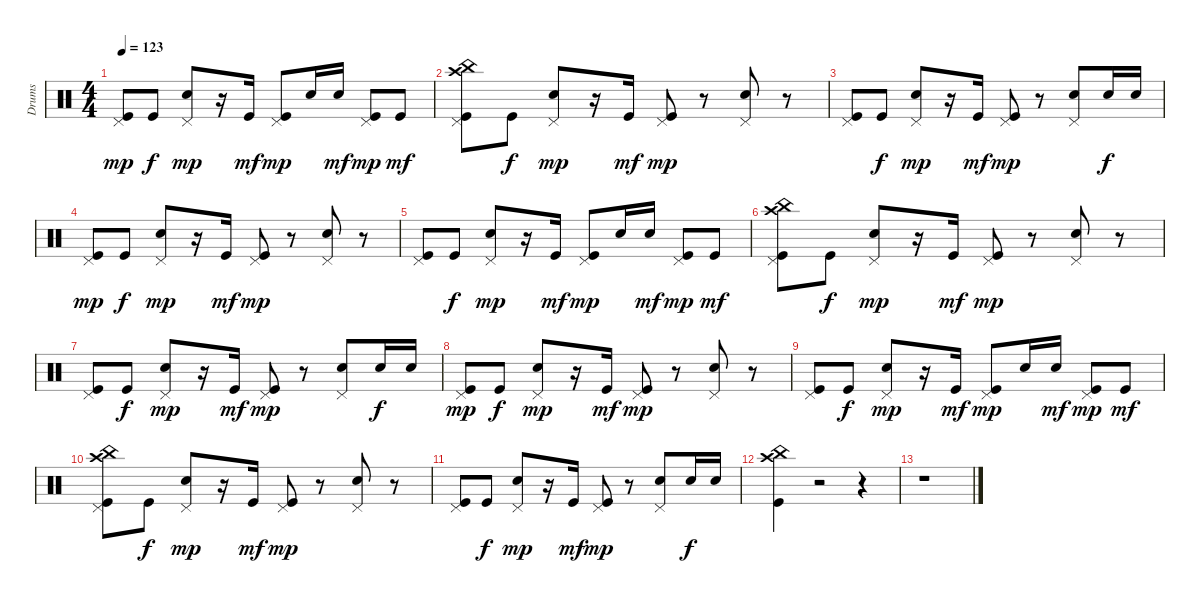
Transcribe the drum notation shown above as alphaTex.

\track ("Drums" "Drums") {instrument percussion}
\staff {score}
\articulation defaults
\ts (4 4)
\tempo 123
\clef neutral
\ks c
("Pedal Hi-Hat (hit)" "Kick (hit)").8{dy mp} "Kick (hit)".8{dy f} ("Pedal Hi-Hat (hit)" "Electric Snare (hit)").8{dy mp} r.16 "Kick (hit)".16{dy mf} ("Pedal Hi-Hat (hit)" "Kick (hit)").8{dy mp} "Electric Snare (hit)".16 "Electric Snare (hit)".16{dy mf} ("Kick (hit)" "Pedal Hi-Hat (hit)").8{dy mp} "Kick (hit)".8{dy mf} |
("Pedal Hi-Hat (hit)" "Kick (hit)" "Crash high (hit)" "China (hit)").8 "Kick (hit)".8{dy f} ("Pedal Hi-Hat (hit)" "Electric Snare (hit)").8{dy mp} r.16 "Kick (hit)".16{dy mf} ("Pedal Hi-Hat (hit)" "Kick (hit)").8{dy mp} r.8 ("Pedal Hi-Hat (hit)" "Electric Snare (hit)").8 r.8 |
("Pedal Hi-Hat (hit)" "Kick (hit)").8 "Kick (hit)".8{dy f} ("Electric Snare (hit)" "Pedal Hi-Hat (hit)").8{dy mp} r.16 "Kick (hit)".16{dy mf} ("Pedal Hi-Hat (hit)" "Kick (hit)").8{dy mp} r.8 ("Pedal Hi-Hat (hit)" "Electric Snare (hit)").8 "Electric Snare (hit)".16{dy f} "Electric Snare (hit)".16 |
("Pedal Hi-Hat (hit)" "Kick (hit)").8{dy mp} "Kick (hit)".8{dy f} ("Pedal Hi-Hat (hit)" "Electric Snare (hit)").8{dy mp} r.16 "Kick (hit)".16{dy mf} ("Pedal Hi-Hat (hit)" "Kick (hit)").8{dy mp} r.8 ("Pedal Hi-Hat (hit)" "Electric Snare (hit)").8 r.8 |
("Pedal Hi-Hat (hit)" "Kick (hit)").8 "Kick (hit)".8{dy f} ("Pedal Hi-Hat (hit)" "Electric Snare (hit)").8{dy mp} r.16 "Kick (hit)".16{dy mf} ("Pedal Hi-Hat (hit)" "Kick (hit)").8{dy mp} "Electric Snare (hit)".16 "Electric Snare (hit)".16{dy mf} ("Kick (hit)" "Pedal Hi-Hat (hit)").8{dy mp} "Kick (hit)".8{dy mf} |
("Pedal Hi-Hat (hit)" "Kick (hit)" "Crash high (hit)" "China (hit)").8 "Kick (hit)".8{dy f} ("Pedal Hi-Hat (hit)" "Electric Snare (hit)").8{dy mp} r.16 "Kick (hit)".16{dy mf} ("Pedal Hi-Hat (hit)" "Kick (hit)").8{dy mp} r.8 ("Pedal Hi-Hat (hit)" "Electric Snare (hit)").8 r.8 |
("Pedal Hi-Hat (hit)" "Kick (hit)").8 "Kick (hit)".8{dy f} ("Electric Snare (hit)" "Pedal Hi-Hat (hit)").8{dy mp} r.16 "Kick (hit)".16{dy mf} ("Pedal Hi-Hat (hit)" "Kick (hit)").8{dy mp} r.8 ("Pedal Hi-Hat (hit)" "Electric Snare (hit)").8 "Electric Snare (hit)".16{dy f} "Electric Snare (hit)".16 |
("Pedal Hi-Hat (hit)" "Kick (hit)").8{dy mp} "Kick (hit)".8{dy f} ("Pedal Hi-Hat (hit)" "Electric Snare (hit)").8{dy mp} r.16 "Kick (hit)".16{dy mf} ("Pedal Hi-Hat (hit)" "Kick (hit)").8{dy mp} r.8 ("Pedal Hi-Hat (hit)" "Electric Snare (hit)").8 r.8 |
("Pedal Hi-Hat (hit)" "Kick (hit)").8 "Kick (hit)".8{dy f} ("Pedal Hi-Hat (hit)" "Electric Snare (hit)").8{dy mp} r.16 "Kick (hit)".16{dy mf} ("Pedal Hi-Hat (hit)" "Kick (hit)").8{dy mp} "Electric Snare (hit)".16 "Electric Snare (hit)".16{dy mf} ("Kick (hit)" "Pedal Hi-Hat (hit)").8{dy mp} "Kick (hit)".8{dy mf} |
("Pedal Hi-Hat (hit)" "Kick (hit)" "Crash high (hit)" "China (hit)").8 "Kick (hit)".8{dy f} ("Pedal Hi-Hat (hit)" "Electric Snare (hit)").8{dy mp} r.16 "Kick (hit)".16{dy mf} ("Pedal Hi-Hat (hit)" "Kick (hit)").8{dy mp} r.8 ("Pedal Hi-Hat (hit)" "Electric Snare (hit)").8 r.8 |
("Pedal Hi-Hat (hit)" "Kick (hit)").8 "Kick (hit)".8{dy f} ("Electric Snare (hit)" "Pedal Hi-Hat (hit)").8{dy mp} r.16 "Kick (hit)".16{dy mf} ("Pedal Hi-Hat (hit)" "Kick (hit)").8{dy mp} r.8 ("Pedal Hi-Hat (hit)" "Electric Snare (hit)").8 "Electric Snare (hit)".16{dy f} "Electric Snare (hit)".16 |
("Kick (hit)" "Crash high (hit)" "China (hit)").4 r.2 r.4 |
r.1
